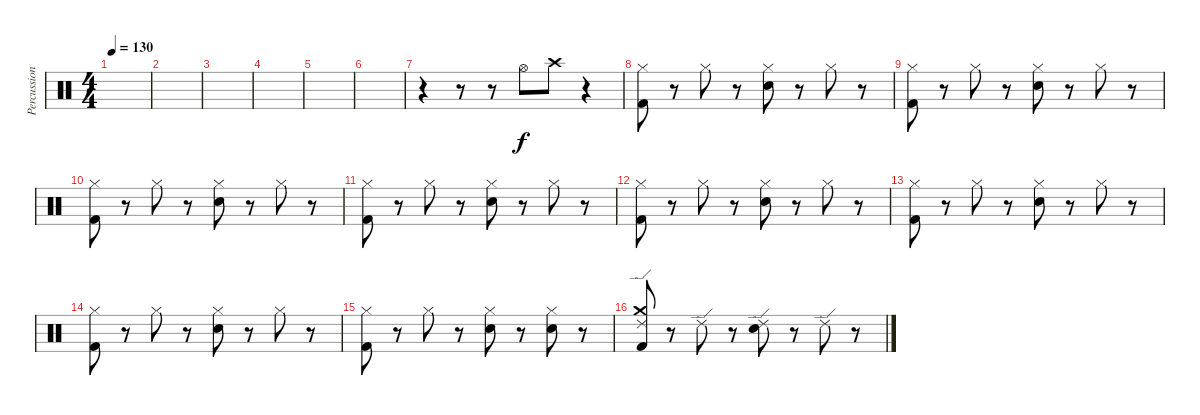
\track ("Percussion" "Percussion") {instrument percussion}
\staff {score}
\articulation defaults
\ts (4 4)
\tempo 130
\clef neutral
\ks c
|
|
|
|
|
|
r.4 r.8 r.8 "Hi-Hat (open)".8 "Crash high (hit)".8 r.4 |
("Hi-Hat (closed)" "Kick (hit) 2").8 r.8 "Hi-Hat (closed)".8 r.8 ("Hi-Hat (closed)" "Snare (hit) 2").8 r.8 "Hi-Hat (closed)".8 r.8 |
("Hi-Hat (closed)" "Kick (hit) 2").8 r.8 "Hi-Hat (closed)".8 r.8 ("Hi-Hat (closed)" "Snare (hit) 2").8 r.8 "Hi-Hat (closed)".8 r.8 |
("Hi-Hat (closed)" "Kick (hit) 2").8 r.8 "Hi-Hat (closed)".8 r.8 ("Hi-Hat (closed)" "Snare (hit) 2").8 r.8 "Hi-Hat (closed)".8 r.8 |
("Hi-Hat (closed)" "Kick (hit) 2").8 r.8 "Hi-Hat (closed)".8 r.8 ("Hi-Hat (closed)" "Snare (hit) 2").8 r.8 "Hi-Hat (closed)".8 r.8 |
("Hi-Hat (closed)" "Kick (hit) 2").8 r.8 "Hi-Hat (closed)".8 r.8 ("Hi-Hat (closed)" "Snare (hit) 2").8 r.8 "Hi-Hat (closed)".8 r.8 |
("Hi-Hat (closed)" "Kick (hit) 2").8 r.8 "Hi-Hat (closed)".8 r.8 ("Hi-Hat (closed)" "Snare (hit) 2").8 r.8 "Hi-Hat (closed)".8 r.8 |
("Hi-Hat (closed)" "Kick (hit) 2").8 r.8 "Hi-Hat (closed)".8 r.8 ("Hi-Hat (closed)" "Snare (hit) 2").8 r.8 "Hi-Hat (closed)".8 r.8 |
("Hi-Hat (closed)" "Kick (hit) 2").8 r.8 "Hi-Hat (closed)".8 r.8 ("Hi-Hat (closed)" "Snare (hit) 2").8 r.8 ("Hi-Hat (closed)" "Snare (hit) 2").8 r.8 |
("Crash medium (hit)" "Ride (edge) 2" "Kick (hit) 2").8 r.8 "Ride (edge) 2".8 r.8 ("Ride (edge) 2" "Snare (hit) 2").8 r.8 "Ride (edge) 2".8 r.8
